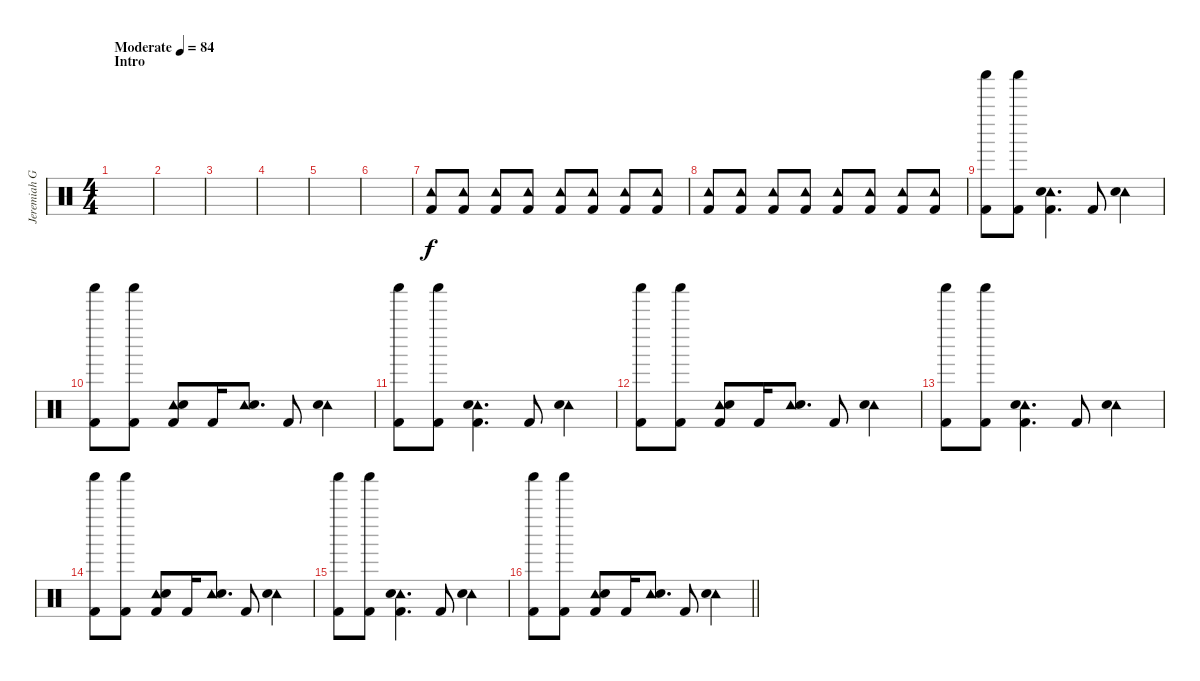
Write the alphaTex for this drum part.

\track ("Jeremiah Green" "Jeremiah G") {instrument percussion}
\staff {score}
\articulation defaults
\ts (4 4)
\section ("" "Intro")
\tempo (84 "Moderate")
\clef neutral
\ks c
|
|
|
|
|
|
("Tambourine (hit)" "Kick (hit) 2").8 ("Tambourine (hit)" "Kick (hit) 2").8 ("Tambourine (hit)" "Kick (hit) 2").8 ("Tambourine (hit)" "Kick (hit) 2").8 ("Tambourine (hit)" "Kick (hit) 2").8 ("Tambourine (hit)" "Kick (hit) 2").8 ("Tambourine (hit)" "Kick (hit) 2").8 ("Tambourine (hit)" "Kick (hit) 2").8 |
("Tambourine (hit)" "Kick (hit) 2").8 ("Tambourine (hit)" "Kick (hit) 2").8 ("Tambourine (hit)" "Kick (hit) 2").8 ("Tambourine (hit)" "Kick (hit) 2").8 ("Tambourine (hit)" "Kick (hit) 2").8 ("Tambourine (hit)" "Kick (hit) 2").8 ("Tambourine (hit)" "Kick (hit) 2").8 ("Tambourine (hit)" "Kick (hit) 2").8 |
("Shaker (hit)" "Kick (hit) 2").8 ("Shaker (hit)" "Kick (hit) 2").8 ("Tambourine (hit)" "Electric Snare (hit)" "Kick (hit) 2").4{d} "Kick (hit) 2".8 ("Tambourine (hit)" "Electric Snare (hit)").4 |
("Shaker (hit)" "Kick (hit) 2").8 ("Shaker (hit)" "Kick (hit) 2").8 ("Tambourine (hit)" "Electric Snare (hit)" "Kick (hit) 2").8 "Kick (hit) 2".16 ("Tambourine (hit)" "Electric Snare (hit)").8{d} "Kick (hit) 2".8 ("Tambourine (hit)" "Electric Snare (hit)").4 |
("Shaker (hit)" "Kick (hit) 2").8 ("Shaker (hit)" "Kick (hit) 2").8 ("Tambourine (hit)" "Electric Snare (hit)" "Kick (hit) 2").4{d} "Kick (hit) 2".8 ("Tambourine (hit)" "Electric Snare (hit)").4 |
("Shaker (hit)" "Kick (hit) 2").8 ("Shaker (hit)" "Kick (hit) 2").8 ("Tambourine (hit)" "Electric Snare (hit)" "Kick (hit) 2").8 "Kick (hit) 2".16 ("Tambourine (hit)" "Electric Snare (hit)").8{d} "Kick (hit) 2".8 ("Tambourine (hit)" "Electric Snare (hit)").4 |
("Shaker (hit)" "Kick (hit) 2").8 ("Shaker (hit)" "Kick (hit) 2").8 ("Tambourine (hit)" "Electric Snare (hit)" "Kick (hit) 2").4{d} "Kick (hit) 2".8 ("Tambourine (hit)" "Electric Snare (hit)").4 |
("Shaker (hit)" "Kick (hit) 2").8 ("Shaker (hit)" "Kick (hit) 2").8 ("Tambourine (hit)" "Electric Snare (hit)" "Kick (hit) 2").8 "Kick (hit) 2".16 ("Tambourine (hit)" "Electric Snare (hit)").8{d} "Kick (hit) 2".8 ("Tambourine (hit)" "Electric Snare (hit)").4 |
("Shaker (hit)" "Kick (hit) 2").8 ("Shaker (hit)" "Kick (hit) 2").8 ("Tambourine (hit)" "Electric Snare (hit)" "Kick (hit) 2").4{d} "Kick (hit) 2".8 ("Tambourine (hit)" "Electric Snare (hit)").4 |
\barLineRight lightlight
("Shaker (hit)" "Kick (hit) 2").8 ("Shaker (hit)" "Kick (hit) 2").8 ("Tambourine (hit)" "Electric Snare (hit)" "Kick (hit) 2").8 "Kick (hit) 2".16 ("Tambourine (hit)" "Electric Snare (hit)").8{d} "Kick (hit) 2".8 ("Tambourine (hit)" "Electric Snare (hit)").4
